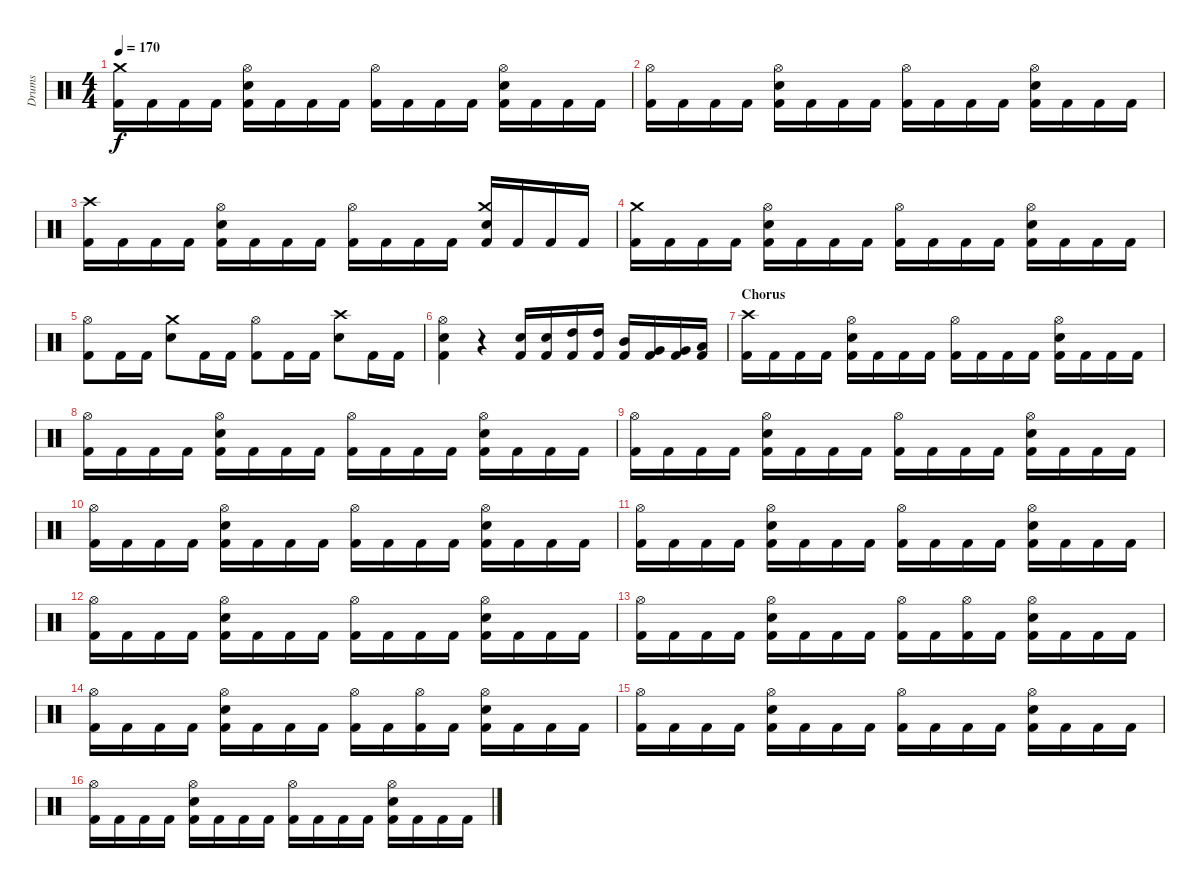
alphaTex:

\track ("Drums" "Drums") {instrument percussion}
\staff {score}
\articulation defaults
\ts (4 4)
\section ("" "")
\tempo 170
\clef neutral
\ks c
("Kick (hit) 2" "Crash medium (hit)").16{dy f} "Kick (hit) 2".16 "Kick (hit) 2".16 "Kick (hit) 2".16 ("Kick (hit) 2" "Snare (hit) 2" "Hi-Hat (open)").16 "Kick (hit) 2".16 "Kick (hit) 2".16 "Kick (hit) 2".16 ("Kick (hit) 2" "Hi-Hat (open)").16 "Kick (hit) 2".16 "Kick (hit) 2".16 "Kick (hit) 2".16 ("Kick (hit) 2" "Snare (hit) 2" "Hi-Hat (open)").16 "Kick (hit) 2".16 "Kick (hit) 2".16 "Kick (hit) 2".16 |
("Kick (hit) 2" "Hi-Hat (open)").16 "Kick (hit) 2".16 "Kick (hit) 2".16 "Kick (hit) 2".16 ("Kick (hit) 2" "Snare (hit) 2" "Hi-Hat (open)").16 "Kick (hit) 2".16 "Kick (hit) 2".16 "Kick (hit) 2".16 ("Kick (hit) 2" "Hi-Hat (open)").16 "Kick (hit) 2".16 "Kick (hit) 2".16 "Kick (hit) 2".16 ("Kick (hit) 2" "Snare (hit) 2" "Hi-Hat (open)").16 "Kick (hit) 2".16 "Kick (hit) 2".16 "Kick (hit) 2".16 |
("Kick (hit) 2" "Crash high (hit)").16 "Kick (hit) 2".16 "Kick (hit) 2".16 "Kick (hit) 2".16 ("Kick (hit) 2" "Snare (hit) 2" "Hi-Hat (open)").16 "Kick (hit) 2".16 "Kick (hit) 2".16 "Kick (hit) 2".16 ("Kick (hit) 2" "Hi-Hat (open)").16 "Kick (hit) 2".16 "Kick (hit) 2".16 "Kick (hit) 2".16 ("Kick (hit) 2" "Snare (hit) 2" "Crash medium (hit)").16 "Kick (hit) 2".16 "Kick (hit) 2".16 "Kick (hit) 2".16 |
("Kick (hit) 2" "Crash medium (hit)").16 "Kick (hit) 2".16 "Kick (hit) 2".16 "Kick (hit) 2".16 ("Kick (hit) 2" "Snare (hit) 2" "Hi-Hat (open)").16 "Kick (hit) 2".16 "Kick (hit) 2".16 "Kick (hit) 2".16 ("Kick (hit) 2" "Hi-Hat (open)").16 "Kick (hit) 2".16 "Kick (hit) 2".16 "Kick (hit) 2".16 ("Kick (hit) 2" "Snare (hit) 2" "Hi-Hat (open)").16 "Kick (hit) 2".16 "Kick (hit) 2".16 "Kick (hit) 2".16 |
("Kick (hit) 2" "Hi-Hat (open)").8 "Kick (hit) 2".16 "Kick (hit) 2".16 ("Snare (hit) 2" "Crash medium (hit)").8 "Kick (hit) 2".16 "Kick (hit) 2".16 ("Kick (hit) 2" "Hi-Hat (open)").8 "Kick (hit) 2".16 "Kick (hit) 2".16 ("Snare (hit) 2" "Crash high (hit)").8 "Kick (hit) 2".16 "Kick (hit) 2".16 |
("Kick (hit) 2" "Snare (hit) 2" "Hi-Hat (open)").4 r.4 ("Kick (hit) 2" "Snare (hit) 2").16 ("Kick (hit) 2" "Snare (hit) 2").16 ("Kick (hit) 2" "High Tom (hit)").16 ("Kick (hit) 2" "High Tom (hit)").16 ("Kick (hit) 2" "Mid Tom (hit)").16 ("Kick (hit) 2" "Very Low Tom (hit)").16 ("Kick (hit) 2" "Very Low Tom (hit)").16 ("Kick (hit) 2" "Low Floor Tom (hit)").16 |
\section ("" "Chorus")
("Kick (hit) 2" "Crash high (hit)").16 "Kick (hit) 2".16 "Kick (hit) 2".16 "Kick (hit) 2".16 ("Kick (hit) 2" "Snare (hit) 2" "Hi-Hat (open)").16 "Kick (hit) 2".16 "Kick (hit) 2".16 "Kick (hit) 2".16 ("Kick (hit) 2" "Hi-Hat (open)").16 "Kick (hit) 2".16 "Kick (hit) 2".16 "Kick (hit) 2".16 ("Kick (hit) 2" "Snare (hit) 2" "Hi-Hat (open)").16 "Kick (hit) 2".16 "Kick (hit) 2".16 "Kick (hit) 2".16 |
("Kick (hit) 2" "Hi-Hat (open)").16 "Kick (hit) 2".16 "Kick (hit) 2".16 "Kick (hit) 2".16 ("Kick (hit) 2" "Snare (hit) 2" "Hi-Hat (open)").16 "Kick (hit) 2".16 "Kick (hit) 2".16 "Kick (hit) 2".16 ("Kick (hit) 2" "Hi-Hat (open)").16 "Kick (hit) 2".16 "Kick (hit) 2".16 "Kick (hit) 2".16 ("Kick (hit) 2" "Snare (hit) 2" "Hi-Hat (open)").16 "Kick (hit) 2".16 "Kick (hit) 2".16 "Kick (hit) 2".16 |
("Kick (hit) 2" "Hi-Hat (open)").16 "Kick (hit) 2".16 "Kick (hit) 2".16 "Kick (hit) 2".16 ("Kick (hit) 2" "Snare (hit) 2" "Hi-Hat (open)").16 "Kick (hit) 2".16 "Kick (hit) 2".16 "Kick (hit) 2".16 ("Kick (hit) 2" "Hi-Hat (open)").16 "Kick (hit) 2".16 "Kick (hit) 2".16 "Kick (hit) 2".16 ("Kick (hit) 2" "Snare (hit) 2" "Hi-Hat (open)").16 "Kick (hit) 2".16 "Kick (hit) 2".16 "Kick (hit) 2".16 |
("Kick (hit) 2" "Hi-Hat (open)").16 "Kick (hit) 2".16 "Kick (hit) 2".16 "Kick (hit) 2".16 ("Kick (hit) 2" "Snare (hit) 2" "Hi-Hat (open)").16 "Kick (hit) 2".16 "Kick (hit) 2".16 "Kick (hit) 2".16 ("Kick (hit) 2" "Hi-Hat (open)").16 "Kick (hit) 2".16 "Kick (hit) 2".16 "Kick (hit) 2".16 ("Kick (hit) 2" "Snare (hit) 2" "Hi-Hat (open)").16 "Kick (hit) 2".16 "Kick (hit) 2".16 "Kick (hit) 2".16 |
("Kick (hit) 2" "Hi-Hat (open)").16 "Kick (hit) 2".16 "Kick (hit) 2".16 "Kick (hit) 2".16 ("Kick (hit) 2" "Snare (hit) 2" "Hi-Hat (open)").16 "Kick (hit) 2".16 "Kick (hit) 2".16 "Kick (hit) 2".16 ("Kick (hit) 2" "Hi-Hat (open)").16 "Kick (hit) 2".16 "Kick (hit) 2".16 "Kick (hit) 2".16 ("Kick (hit) 2" "Snare (hit) 2" "Hi-Hat (open)").16 "Kick (hit) 2".16 "Kick (hit) 2".16 "Kick (hit) 2".16 |
("Kick (hit) 2" "Hi-Hat (open)").16 "Kick (hit) 2".16 "Kick (hit) 2".16 "Kick (hit) 2".16 ("Kick (hit) 2" "Snare (hit) 2" "Hi-Hat (open)").16 "Kick (hit) 2".16 "Kick (hit) 2".16 "Kick (hit) 2".16 ("Kick (hit) 2" "Hi-Hat (open)").16 "Kick (hit) 2".16 "Kick (hit) 2".16 "Kick (hit) 2".16 ("Kick (hit) 2" "Snare (hit) 2" "Hi-Hat (open)").16 "Kick (hit) 2".16 "Kick (hit) 2".16 "Kick (hit) 2".16 |
("Kick (hit) 2" "Hi-Hat (open)").16 "Kick (hit) 2".16 "Kick (hit) 2".16 "Kick (hit) 2".16 ("Kick (hit) 2" "Snare (hit) 2" "Hi-Hat (open)").16 "Kick (hit) 2".16 "Kick (hit) 2".16 "Kick (hit) 2".16 ("Kick (hit) 2" "Hi-Hat (open)").16 "Kick (hit) 2".16 ("Kick (hit) 2" "Hi-Hat (open)").16 "Kick (hit) 2".16 ("Kick (hit) 2" "Snare (hit) 2" "Hi-Hat (open)").16 "Kick (hit) 2".16 "Kick (hit) 2".16 "Kick (hit) 2".16 |
("Kick (hit) 2" "Hi-Hat (open)").16 "Kick (hit) 2".16 "Kick (hit) 2".16 "Kick (hit) 2".16 ("Kick (hit) 2" "Snare (hit) 2" "Hi-Hat (open)").16 "Kick (hit) 2".16 "Kick (hit) 2".16 "Kick (hit) 2".16 ("Kick (hit) 2" "Hi-Hat (open)").16 "Kick (hit) 2".16 ("Kick (hit) 2" "Hi-Hat (open)").16 "Kick (hit) 2".16 ("Kick (hit) 2" "Snare (hit) 2" "Hi-Hat (open)").16 "Kick (hit) 2".16 "Kick (hit) 2".16 "Kick (hit) 2".16 |
("Kick (hit) 2" "Hi-Hat (open)").16 "Kick (hit) 2".16 "Kick (hit) 2".16 "Kick (hit) 2".16 ("Kick (hit) 2" "Snare (hit) 2" "Hi-Hat (open)").16 "Kick (hit) 2".16 "Kick (hit) 2".16 "Kick (hit) 2".16 ("Kick (hit) 2" "Hi-Hat (open)").16 "Kick (hit) 2".16 "Kick (hit) 2".16 "Kick (hit) 2".16 ("Kick (hit) 2" "Snare (hit) 2" "Hi-Hat (open)").16 "Kick (hit) 2".16 "Kick (hit) 2".16 "Kick (hit) 2".16 |
("Kick (hit) 2" "Hi-Hat (open)").16 "Kick (hit) 2".16 "Kick (hit) 2".16 "Kick (hit) 2".16 ("Kick (hit) 2" "Snare (hit) 2" "Hi-Hat (open)").16 "Kick (hit) 2".16 "Kick (hit) 2".16 "Kick (hit) 2".16 ("Kick (hit) 2" "Hi-Hat (open)").16 "Kick (hit) 2".16 "Kick (hit) 2".16 "Kick (hit) 2".16 ("Kick (hit) 2" "Snare (hit) 2" "Hi-Hat (open)").16 "Kick (hit) 2".16 "Kick (hit) 2".16 "Kick (hit) 2".16
